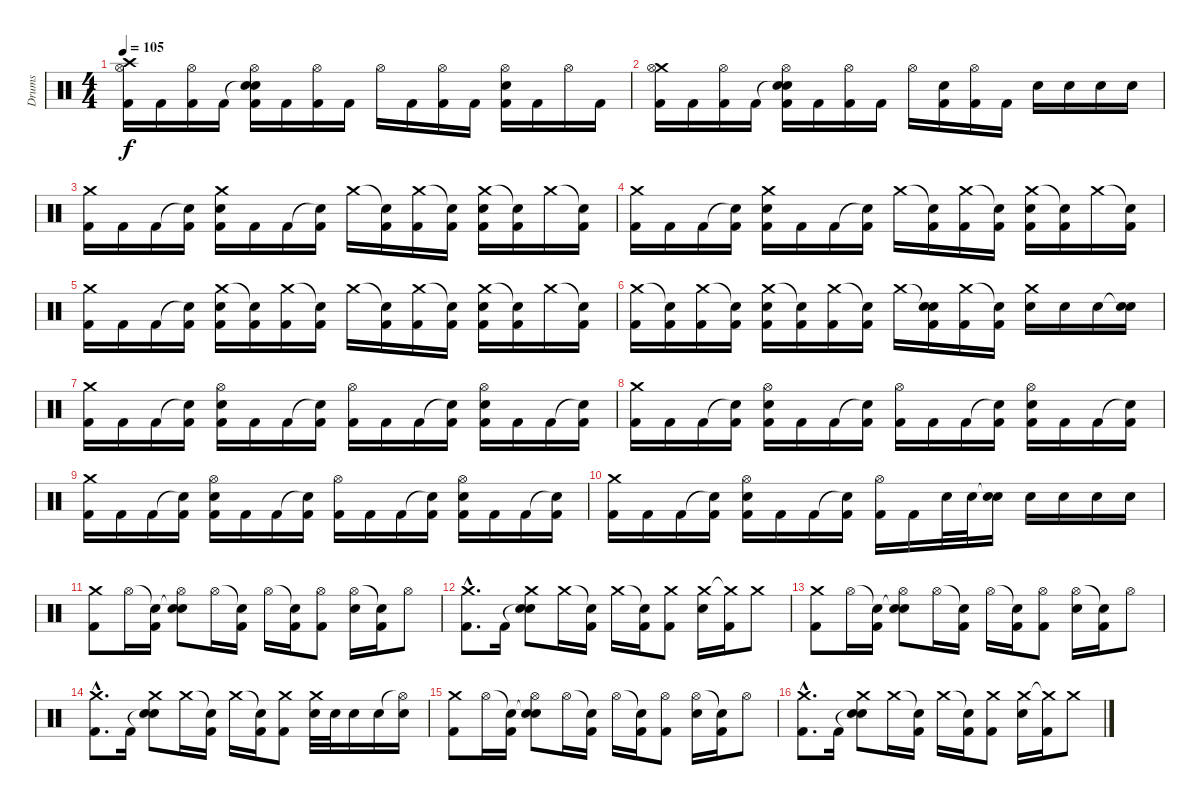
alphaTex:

\track ("Drums" "Drums") {instrument percussion}
\staff {score}
\articulation defaults
\ts (4 4)
\tempo 105
\clef neutral
\ks c
("Crash high (hit)" "Hi-Hat (open)" "Kick (hit) 2").16{dy f} "Kick (hit) 2".16 ("Hi-Hat (open)" "Kick (hit) 2").16 "Kick (hit) 2".16 ("Snare (hit)"{t} "Hi-Hat (open)" "Electric Snare (hit)" "Kick (hit) 2").16 "Kick (hit) 2".16 ("Hi-Hat (open)" "Kick (hit) 2").16 "Kick (hit) 2".16 "Hi-Hat (open)".16 "Kick (hit) 2".16 ("Hi-Hat (open)" "Kick (hit) 2").16 "Kick (hit) 2".16 ("Hi-Hat (open)" "Electric Snare (hit)" "Kick (hit) 2").16 "Kick (hit) 2".16 "Hi-Hat (open)".16 "Kick (hit) 2".16 |
("Crash medium (hit)" "Hi-Hat (open)" "Kick (hit) 2").16 "Kick (hit) 2".16 ("Hi-Hat (open)" "Kick (hit) 2").16 "Kick (hit) 2".16 ("Snare (hit)"{t} "Hi-Hat (open)" "Electric Snare (hit)" "Kick (hit) 2").16 "Kick (hit) 2".16 ("Hi-Hat (open)" "Kick (hit) 2").16 "Kick (hit) 2".16 "Hi-Hat (open)".16 ("Electric Snare (hit)" "Kick (hit) 2").16 ("Hi-Hat (open)" "Kick (hit) 2").16 "Kick (hit) 2".16 "Electric Snare (hit)".16 "Electric Snare (hit)".16 "Electric Snare (hit)".16 "Electric Snare (hit)".16 |
("Crash medium (hit)" "Kick (hit) 2").16 "Kick (hit) 2".16 "Kick (hit) 2".16 ("Snare (hit)"{t} "Kick (hit) 2").16 ("Crash medium (hit)" "Electric Snare (hit)" "Kick (hit) 2").16 "Kick (hit) 2".16 "Kick (hit) 2".16 ("Snare (hit)"{t} "Kick (hit) 2").16 "Crash medium (hit)".16 ("Snare (hit)"{t} "Kick (hit) 2").16 ("Crash medium (hit)" "Kick (hit) 2").16 ("Snare (hit)"{t} "Kick (hit) 2").16 ("Crash medium (hit)" "Electric Snare (hit)" "Kick (hit) 2").16 ("Snare (hit)"{t} "Kick (hit) 2").16 "Crash medium (hit)".16 ("Snare (hit)"{t} "Kick (hit) 2").16 |
("Crash medium (hit)" "Kick (hit) 2").16 "Kick (hit) 2".16 "Kick (hit) 2".16 ("Snare (hit)"{t} "Kick (hit) 2").16 ("Crash medium (hit)" "Electric Snare (hit)" "Kick (hit) 2").16 "Kick (hit) 2".16 "Kick (hit) 2".16 ("Snare (hit)"{t} "Kick (hit) 2").16 "Crash medium (hit)".16 ("Snare (hit)"{t} "Kick (hit) 2").16 ("Crash medium (hit)" "Kick (hit) 2").16 ("Snare (hit)"{t} "Kick (hit) 2").16 ("Crash medium (hit)" "Electric Snare (hit)" "Kick (hit) 2").16 ("Snare (hit)"{t} "Kick (hit) 2").16 "Crash medium (hit)".16 ("Snare (hit)"{t} "Kick (hit) 2").16 |
("Crash medium (hit)" "Kick (hit) 2").16 "Kick (hit) 2".16 "Kick (hit) 2".16 ("Snare (hit)"{t} "Kick (hit) 2").16 ("Crash medium (hit)" "Electric Snare (hit)" "Kick (hit) 2").16 ("Snare (hit)"{t} "Kick (hit) 2").16 ("Crash medium (hit)" "Kick (hit) 2").16 ("Snare (hit)"{t} "Kick (hit) 2").16 "Crash medium (hit)".16 ("Snare (hit)"{t} "Kick (hit) 2").16 ("Crash medium (hit)" "Kick (hit) 2").16 ("Snare (hit)"{t} "Kick (hit) 2").16 ("Crash medium (hit)" "Electric Snare (hit)" "Kick (hit) 2").16 ("Snare (hit)"{t} "Kick (hit) 2").16 "Crash medium (hit)".16 ("Snare (hit)"{t} "Kick (hit) 2").16 |
("Crash medium (hit)" "Kick (hit) 2").16 ("Snare (hit)"{t} "Kick (hit) 2").16 ("Crash medium (hit)" "Kick (hit) 2").16 ("Snare (hit)"{t} "Kick (hit) 2").16 ("Crash medium (hit)" "Electric Snare (hit)" "Kick (hit) 2").16 ("Snare (hit)"{t} "Kick (hit) 2").16 ("Crash medium (hit)" "Kick (hit) 2").16 ("Snare (hit)"{t} "Kick (hit) 2").16 "Crash medium (hit)".16 ("Snare (hit)"{t} "Electric Snare (hit)" "Kick (hit) 2").16 ("Crash medium (hit)" "Kick (hit) 2").16 ("Snare (hit)"{t} "Kick (hit) 2").16 ("Crash medium (hit)" "Electric Snare (hit)").16 "Electric Snare (hit)".16 "Electric Snare (hit)".16 ("Snare (hit)"{t} "Electric Snare (hit)").16 |
("Crash medium (hit)" "Kick (hit) 2").16 "Kick (hit) 2".16 "Kick (hit) 2".16 ("Snare (hit)"{t} "Kick (hit) 2").16 ("Hi-Hat (open)" "Electric Snare (hit)" "Kick (hit) 2").16 "Kick (hit) 2".16 "Kick (hit) 2".16 ("Snare (hit)"{t} "Kick (hit) 2").16 ("Hi-Hat (open)" "Kick (hit) 2").16 "Kick (hit) 2".16 "Kick (hit) 2".16 ("Snare (hit)"{t} "Kick (hit) 2").16 ("Hi-Hat (open)" "Electric Snare (hit)" "Kick (hit) 2").16 "Kick (hit) 2".16 "Kick (hit) 2".16 ("Snare (hit)"{t} "Kick (hit) 2").16 |
("Crash medium (hit)" "Kick (hit) 2").16 "Kick (hit) 2".16 "Kick (hit) 2".16 ("Snare (hit)"{t} "Kick (hit) 2").16 ("Hi-Hat (open)" "Electric Snare (hit)" "Kick (hit) 2").16 "Kick (hit) 2".16 "Kick (hit) 2".16 ("Snare (hit)"{t} "Kick (hit) 2").16 ("Hi-Hat (open)" "Kick (hit) 2").16 "Kick (hit) 2".16 "Kick (hit) 2".16 ("Snare (hit)"{t} "Kick (hit) 2").16 ("Hi-Hat (open)" "Electric Snare (hit)" "Kick (hit) 2").16 "Kick (hit) 2".16 "Kick (hit) 2".16 ("Snare (hit)"{t} "Kick (hit) 2").16 |
("Crash medium (hit)" "Kick (hit) 2").16 "Kick (hit) 2".16 "Kick (hit) 2".16 ("Snare (hit)"{t} "Kick (hit) 2").16 ("Hi-Hat (open)" "Electric Snare (hit)" "Kick (hit) 2").16 "Kick (hit) 2".16 "Kick (hit) 2".16 ("Snare (hit)"{t} "Kick (hit) 2").16 ("Hi-Hat (open)" "Kick (hit) 2").16 "Kick (hit) 2".16 "Kick (hit) 2".16 ("Snare (hit)"{t} "Kick (hit) 2").16 ("Hi-Hat (open)" "Electric Snare (hit)" "Kick (hit) 2").16 "Kick (hit) 2".16 "Kick (hit) 2".16 ("Snare (hit)"{t} "Kick (hit) 2").16 |
("Crash medium (hit)" "Kick (hit) 2").16 "Kick (hit) 2".16 "Kick (hit) 2".16 ("Snare (hit)"{t} "Kick (hit) 2").16 ("Hi-Hat (open)" "Electric Snare (hit)" "Kick (hit) 2").16 "Kick (hit) 2".16 "Kick (hit) 2".16 ("Snare (hit)"{t} "Kick (hit) 2").16 ("Hi-Hat (open)" "Kick (hit) 2").16 "Kick (hit) 2".16 "Electric Snare (hit)".32 "Electric Snare (hit)".32 ("Snare (hit)"{t} "Electric Snare (hit)").16 "Electric Snare (hit)".16 "Electric Snare (hit)".16 "Electric Snare (hit)".16 "Electric Snare (hit)".16 |
("Crash medium (hit)" "Kick (hit) 2").8 "Hi-Hat (open)".16 ("Snare (hit)"{t} "Kick (hit) 2").16 ("Snare (hit)"{t} "Hi-Hat (open)" "Electric Snare (hit)").8 "Hi-Hat (open)".16 ("Snare (hit)"{t} "Kick (hit) 2").16 "Hi-Hat (open)".16 ("Snare (hit)"{t} "Kick (hit) 2").16 ("Hi-Hat (open)" "Kick (hit) 2").8 ("Hi-Hat (open)" "Electric Snare (hit)").16 ("Snare (hit)"{t} "Kick (hit) 2").16 "Hi-Hat (open)".8 |
("Crash medium (hit)"{hac} "Kick (hit) 2"{hac}).8{d} "Kick (hit) 2".16 ("Snare (hit)"{t} "Crash medium (hit)" "Electric Snare (hit)").8 "Crash medium (hit)".16 ("Snare (hit)"{t} "Kick (hit) 2").16 "Crash medium (hit)".16 ("Snare (hit)"{t} "Kick (hit) 2").16 ("Crash medium (hit)" "Kick (hit) 2").8 ("Crash medium (hit)" "Electric Snare (hit)").16 ("Crash medium (hit)"{t} "Kick (hit) 2").16 "Crash medium (hit)".8 |
("Crash medium (hit)" "Kick (hit) 2").8 "Hi-Hat (open)".16 ("Snare (hit)"{t} "Kick (hit) 2").16 ("Snare (hit)"{t} "Hi-Hat (open)" "Electric Snare (hit)").8 "Hi-Hat (open)".16 ("Snare (hit)"{t} "Kick (hit) 2").16 "Hi-Hat (open)".16 ("Snare (hit)"{t} "Kick (hit) 2").16 ("Hi-Hat (open)" "Kick (hit) 2").8 ("Hi-Hat (open)" "Electric Snare (hit)").16 ("Snare (hit)"{t} "Kick (hit) 2").16 "Hi-Hat (open)".8 |
("Crash medium (hit)"{hac} "Kick (hit) 2"{hac}).8{d} "Kick (hit) 2".16 ("Snare (hit)"{t} "Crash medium (hit)" "Electric Snare (hit)").8 "Crash medium (hit)".16 ("Snare (hit)"{t} "Kick (hit) 2").16 "Crash medium (hit)".16 ("Snare (hit)"{t} "Kick (hit) 2").16 ("Crash medium (hit)" "Kick (hit) 2").8 ("Crash medium (hit)" "Electric Snare (hit)").32 "Electric Snare (hit)".32 "Electric Snare (hit)".16 "Electric Snare (hit)".16 ("Hi-Hat (open)"{t} "Electric Snare (hit)").16 |
("Crash medium (hit)" "Kick (hit) 2").8 "Hi-Hat (open)".16 ("Snare (hit)"{t} "Kick (hit) 2").16 ("Snare (hit)"{t} "Hi-Hat (open)" "Electric Snare (hit)").8 "Hi-Hat (open)".16 ("Snare (hit)"{t} "Kick (hit) 2").16 "Hi-Hat (open)".16 ("Snare (hit)"{t} "Kick (hit) 2").16 ("Hi-Hat (open)" "Kick (hit) 2").8 ("Hi-Hat (open)" "Electric Snare (hit)").16 ("Snare (hit)"{t} "Kick (hit) 2").16 "Hi-Hat (open)".8 |
("Crash medium (hit)"{hac} "Kick (hit) 2"{hac}).8{d} "Kick (hit) 2".16 ("Snare (hit)"{t} "Crash medium (hit)" "Electric Snare (hit)").8 "Crash medium (hit)".16 ("Snare (hit)"{t} "Kick (hit) 2").16 "Crash medium (hit)".16 ("Snare (hit)"{t} "Kick (hit) 2").16 ("Crash medium (hit)" "Kick (hit) 2").8 ("Crash medium (hit)" "Electric Snare (hit)").16 ("Crash medium (hit)"{t} "Kick (hit) 2").16 "Crash medium (hit)".8
